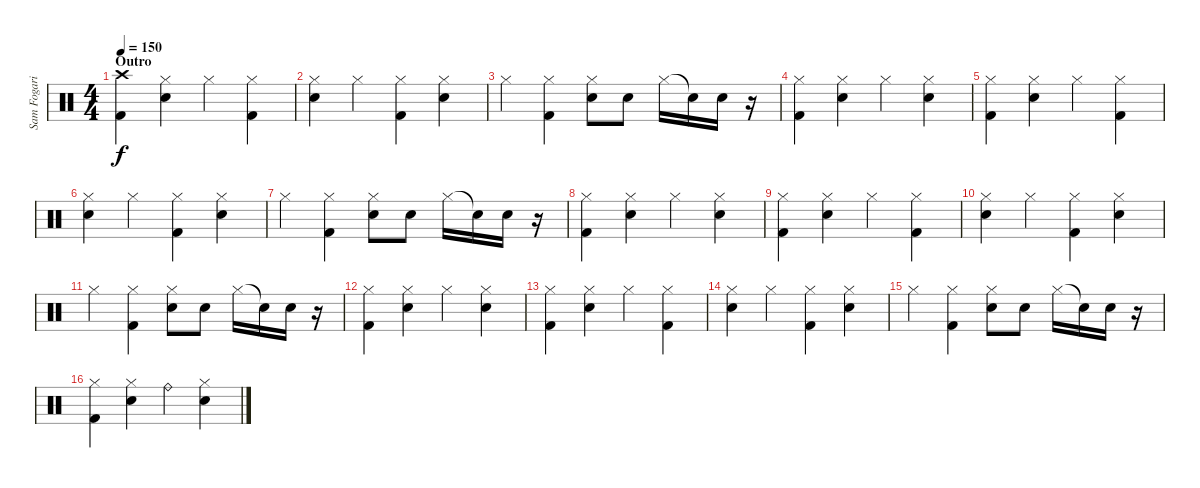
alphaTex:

\track ("Sam Fogarino" "Sam Fogari") {instrument percussion}
\staff {score}
\articulation defaults
\ts (4 4)
\section ("" "Outro")
\tempo 150
\clef neutral
\ks c
("Crash high (hit)" "Kick (hit) 2").4{dy f} ("Electric Snare (hit)" "Hi-Hat (closed)").4 "Hi-Hat (closed)".4 ("Kick (hit) 2" "Hi-Hat (closed)").4 |
("Electric Snare (hit)" "Hi-Hat (closed)").4 "Hi-Hat (closed)".4 ("Kick (hit) 2" "Hi-Hat (closed)").4 ("Electric Snare (hit)" "Hi-Hat (closed)").4 |
"Hi-Hat (closed)".4 ("Kick (hit) 2" "Hi-Hat (closed)").4 ("Electric Snare (hit)" "Hi-Hat (closed)").8 "Electric Snare (hit)".8 "Hi-Hat (closed)".16 "Snare (hit)"{t}.16 "Electric Snare (hit)".16 r.16 |
("Hi-Hat (closed)" "Kick (hit) 2").4 ("Electric Snare (hit)" "Hi-Hat (closed)").4 "Hi-Hat (closed)".4 ("Electric Snare (hit)" "Hi-Hat (closed)").4 |
("Hi-Hat (closed)" "Kick (hit) 2").4 ("Electric Snare (hit)" "Hi-Hat (closed)").4 "Hi-Hat (closed)".4 ("Kick (hit) 2" "Hi-Hat (closed)").4 |
("Electric Snare (hit)" "Hi-Hat (closed)").4 "Hi-Hat (closed)".4 ("Kick (hit) 2" "Hi-Hat (closed)").4 ("Electric Snare (hit)" "Hi-Hat (closed)").4 |
"Hi-Hat (closed)".4 ("Kick (hit) 2" "Hi-Hat (closed)").4 ("Electric Snare (hit)" "Hi-Hat (closed)").8 "Electric Snare (hit)".8 "Hi-Hat (closed)".16 "Snare (hit)"{t}.16 "Electric Snare (hit)".16 r.16 |
("Hi-Hat (closed)" "Kick (hit) 2").4 ("Electric Snare (hit)" "Hi-Hat (closed)").4 "Hi-Hat (closed)".4 ("Electric Snare (hit)" "Hi-Hat (closed)").4 |
("Hi-Hat (closed)" "Kick (hit) 2").4 ("Electric Snare (hit)" "Hi-Hat (closed)").4 "Hi-Hat (closed)".4 ("Kick (hit) 2" "Hi-Hat (closed)").4 |
("Electric Snare (hit)" "Hi-Hat (closed)").4 "Hi-Hat (closed)".4 ("Kick (hit) 2" "Hi-Hat (closed)").4 ("Electric Snare (hit)" "Hi-Hat (closed)").4 |
"Hi-Hat (closed)".4 ("Kick (hit) 2" "Hi-Hat (closed)").4 ("Electric Snare (hit)" "Hi-Hat (closed)").8 "Electric Snare (hit)".8 "Hi-Hat (closed)".16 "Snare (hit)"{t}.16 "Electric Snare (hit)".16 r.16 |
("Hi-Hat (closed)" "Kick (hit) 2").4 ("Electric Snare (hit)" "Hi-Hat (closed)").4 "Hi-Hat (closed)".4 ("Electric Snare (hit)" "Hi-Hat (closed)").4 |
("Hi-Hat (closed)" "Kick (hit) 2").4 ("Electric Snare (hit)" "Hi-Hat (closed)").4 "Hi-Hat (closed)".4 ("Kick (hit) 2" "Hi-Hat (closed)").4 |
("Electric Snare (hit)" "Hi-Hat (closed)").4 "Hi-Hat (closed)".4 ("Kick (hit) 2" "Hi-Hat (closed)").4 ("Electric Snare (hit)" "Hi-Hat (closed)").4 |
"Hi-Hat (closed)".4 ("Kick (hit) 2" "Hi-Hat (closed)").4 ("Electric Snare (hit)" "Hi-Hat (closed)").8 "Electric Snare (hit)".8 "Hi-Hat (closed)".16 "Snare (hit)"{t}.16 "Electric Snare (hit)".16 r.16 |
("Hi-Hat (closed)" "Kick (hit) 2").4 ("Electric Snare (hit)" "Hi-Hat (closed)").4 "Ride (bell)".4 ("Electric Snare (hit)" "Hi-Hat (closed)").4
